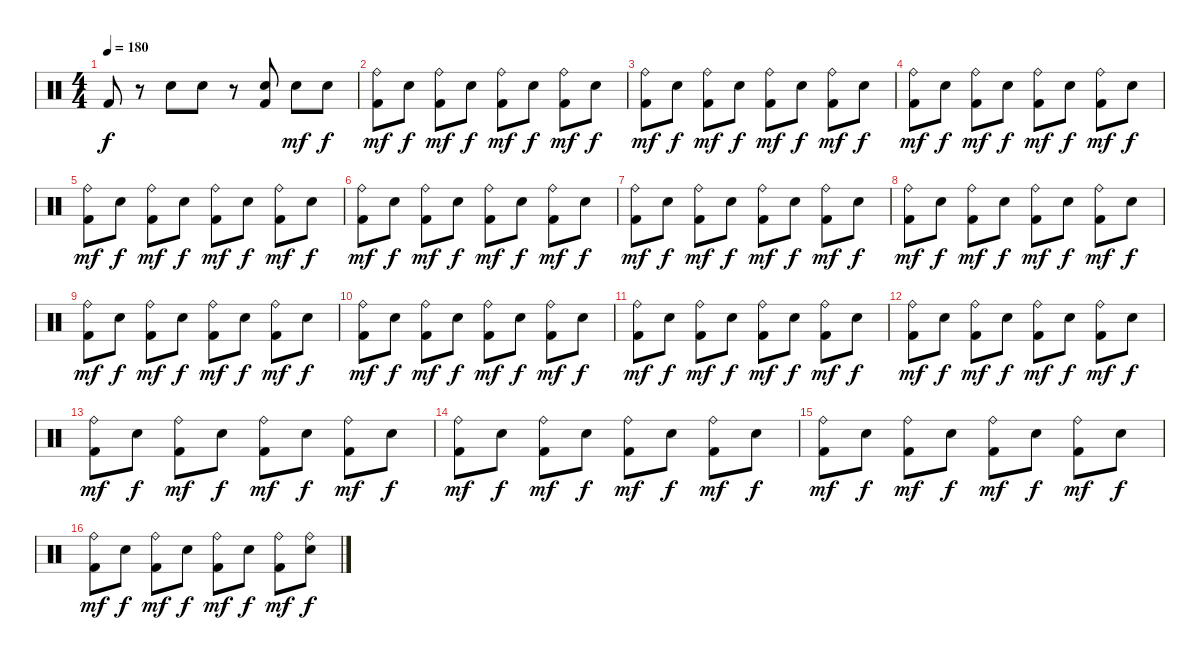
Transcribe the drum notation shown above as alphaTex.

\track "" {instrument percussion}
\staff {score}
\articulation defaults
\ts (4 4)
\tempo 180
\clef neutral
\ks c "Kick (hit) 2".8{dy f}
r.8 "Snare (hit) 2".8 "Snare (hit) 2".8 r.8 ("Kick (hit) 2" "Snare (hit) 2").8 "Snare (hit) 2".8{dy mf} "Snare (hit) 2".8{dy f} |
("Ride (bell)" "Kick (hit) 2").8{dy mf} "Snare (hit) 2".8{dy f} ("Ride (bell)" "Kick (hit) 2").8{dy mf} "Snare (hit) 2".8{dy f} ("Ride (bell)" "Kick (hit) 2").8{dy mf} "Snare (hit) 2".8{dy f} ("Ride (bell)" "Kick (hit) 2").8{dy mf} "Snare (hit) 2".8{dy f} |
("Ride (bell)" "Kick (hit) 2").8{dy mf} "Snare (hit) 2".8{dy f} ("Ride (bell)" "Kick (hit) 2").8{dy mf} "Snare (hit) 2".8{dy f} ("Ride (bell)" "Kick (hit) 2").8{dy mf} "Snare (hit) 2".8{dy f} ("Ride (bell)" "Kick (hit) 2").8{dy mf} "Snare (hit) 2".8{dy f} |
("Ride (bell)" "Kick (hit) 2").8{dy mf} "Snare (hit) 2".8{dy f} ("Ride (bell)" "Kick (hit) 2").8{dy mf} "Snare (hit) 2".8{dy f} ("Ride (bell)" "Kick (hit) 2").8{dy mf} "Snare (hit) 2".8{dy f} ("Ride (bell)" "Kick (hit) 2").8{dy mf} "Snare (hit) 2".8{dy f} |
("Ride (bell)" "Kick (hit) 2").8{dy mf} "Snare (hit) 2".8{dy f} ("Ride (bell)" "Kick (hit) 2").8{dy mf} "Snare (hit) 2".8{dy f} ("Ride (bell)" "Kick (hit) 2").8{dy mf} "Snare (hit) 2".8{dy f} ("Ride (bell)" "Kick (hit) 2").8{dy mf} "Snare (hit) 2".8{dy f} |
("Ride (bell)" "Kick (hit) 2").8{dy mf} "Snare (hit) 2".8{dy f} ("Ride (bell)" "Kick (hit) 2").8{dy mf} "Snare (hit) 2".8{dy f} ("Ride (bell)" "Kick (hit) 2").8{dy mf} "Snare (hit) 2".8{dy f} ("Ride (bell)" "Kick (hit) 2").8{dy mf} "Snare (hit) 2".8{dy f} |
("Ride (bell)" "Kick (hit) 2").8{dy mf} "Snare (hit) 2".8{dy f} ("Ride (bell)" "Kick (hit) 2").8{dy mf} "Snare (hit) 2".8{dy f} ("Ride (bell)" "Kick (hit) 2").8{dy mf} "Snare (hit) 2".8{dy f} ("Ride (bell)" "Kick (hit) 2").8{dy mf} "Snare (hit) 2".8{dy f} |
("Ride (bell)" "Kick (hit) 2").8{dy mf} "Snare (hit) 2".8{dy f} ("Ride (bell)" "Kick (hit) 2").8{dy mf} "Snare (hit) 2".8{dy f} ("Ride (bell)" "Kick (hit) 2").8{dy mf} "Snare (hit) 2".8{dy f} ("Ride (bell)" "Kick (hit) 2").8{dy mf} "Snare (hit) 2".8{dy f} |
("Ride (bell)" "Kick (hit) 2").8{dy mf} "Snare (hit) 2".8{dy f} ("Ride (bell)" "Kick (hit) 2").8{dy mf} "Snare (hit) 2".8{dy f} ("Ride (bell)" "Kick (hit) 2").8{dy mf} "Snare (hit) 2".8{dy f} ("Ride (bell)" "Kick (hit) 2").8{dy mf} "Snare (hit) 2".8{dy f} |
("Ride (bell)" "Kick (hit) 2").8{dy mf} "Snare (hit) 2".8{dy f} ("Ride (bell)" "Kick (hit) 2").8{dy mf} "Snare (hit) 2".8{dy f} ("Ride (bell)" "Kick (hit) 2").8{dy mf} "Snare (hit) 2".8{dy f} ("Ride (bell)" "Kick (hit) 2").8{dy mf} "Snare (hit) 2".8{dy f} |
("Ride (bell)" "Kick (hit) 2").8{dy mf} "Snare (hit) 2".8{dy f} ("Ride (bell)" "Kick (hit) 2").8{dy mf} "Snare (hit) 2".8{dy f} ("Ride (bell)" "Kick (hit) 2").8{dy mf} "Snare (hit) 2".8{dy f} ("Ride (bell)" "Kick (hit) 2").8{dy mf} "Snare (hit) 2".8{dy f} |
("Ride (bell)" "Kick (hit) 2").8{dy mf} "Snare (hit) 2".8{dy f} ("Ride (bell)" "Kick (hit) 2").8{dy mf} "Snare (hit) 2".8{dy f} ("Ride (bell)" "Kick (hit) 2").8{dy mf} "Snare (hit) 2".8{dy f} ("Ride (bell)" "Kick (hit) 2").8{dy mf} "Snare (hit) 2".8{dy f} |
("Ride (bell)" "Kick (hit) 2").8{dy mf} "Snare (hit) 2".8{dy f} ("Ride (bell)" "Kick (hit) 2").8{dy mf} "Snare (hit) 2".8{dy f} ("Ride (bell)" "Kick (hit) 2").8{dy mf} "Snare (hit) 2".8{dy f} ("Ride (bell)" "Kick (hit) 2").8{dy mf} "Snare (hit) 2".8{dy f} |
("Ride (bell)" "Kick (hit) 2").8{dy mf} "Snare (hit) 2".8{dy f} ("Ride (bell)" "Kick (hit) 2").8{dy mf} "Snare (hit) 2".8{dy f} ("Ride (bell)" "Kick (hit) 2").8{dy mf} "Snare (hit) 2".8{dy f} ("Ride (bell)" "Kick (hit) 2").8{dy mf} "Snare (hit) 2".8{dy f} |
("Ride (bell)" "Kick (hit) 2").8{dy mf} "Snare (hit) 2".8{dy f} ("Ride (bell)" "Kick (hit) 2").8{dy mf} "Snare (hit) 2".8{dy f} ("Ride (bell)" "Kick (hit) 2").8{dy mf} "Snare (hit) 2".8{dy f} ("Ride (bell)" "Kick (hit) 2").8{dy mf} "Snare (hit) 2".8{dy f} |
("Ride (bell)" "Kick (hit) 2").8{dy mf} "Snare (hit) 2".8{dy f} ("Ride (bell)" "Kick (hit) 2").8{dy mf} "Snare (hit) 2".8{dy f} ("Ride (bell)" "Kick (hit) 2").8{dy mf} "Snare (hit) 2".8{dy f} ("Ride (bell)" "Kick (hit) 2").8{dy mf} ("Ride (bell)" "Snare (hit) 2").8{dy f}
